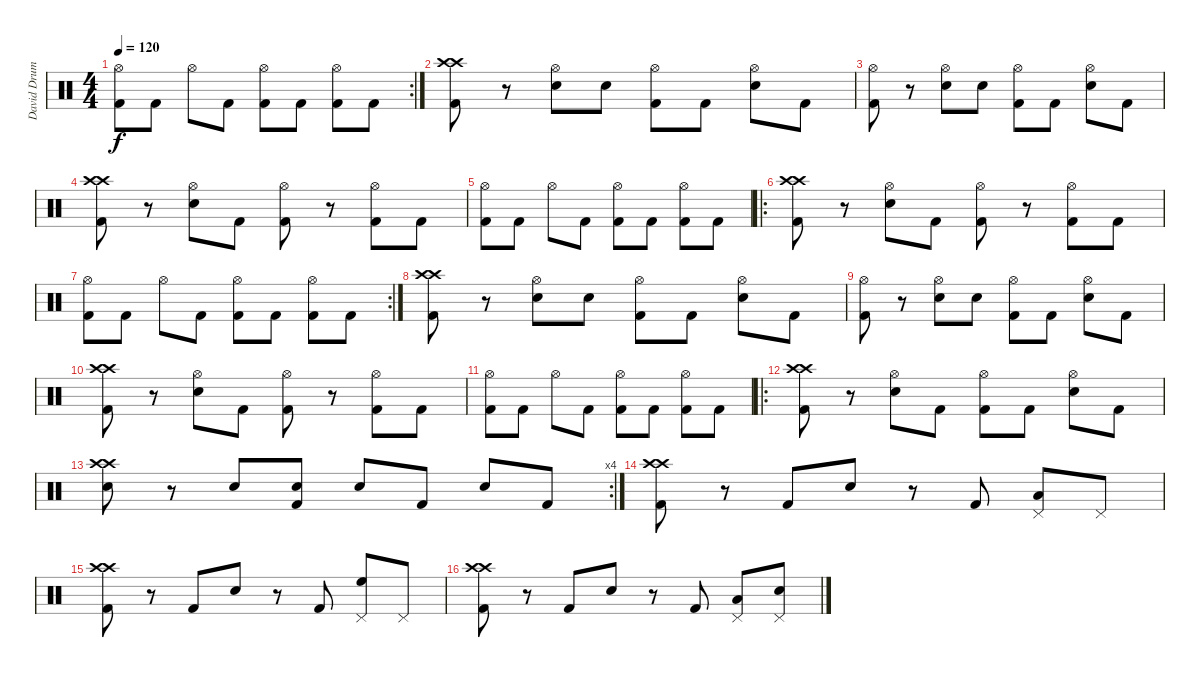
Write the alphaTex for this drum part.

\track ("David Drums" "David Drum") {instrument percussion}
\staff {score}
\articulation defaults
\rc 2
\ts (4 4)
\tempo 120
\clef neutral
\ks c
("Hi-Hat (open)" "Kick (hit) 2").8{dy f} "Kick (hit) 2".8 "Hi-Hat (open)".8 "Kick (hit) 2".8 ("Hi-Hat (open)" "Kick (hit) 2").8 "Kick (hit) 2".8 ("Hi-Hat (open)" "Kick (hit) 2").8 "Kick (hit) 2".8 |
("Crash high (hit)" "Crash high (hit)" "Kick (hit) 2").8 r.8 ("Hi-Hat (open)" "Snare (hit) 2").8 "Snare (hit) 2".8 ("Hi-Hat (open)" "Kick (hit) 2").8 "Kick (hit) 2".8 ("Hi-Hat (open)" "Snare (hit) 2").8 "Kick (hit) 2".8 |
("Hi-Hat (open)" "Kick (hit) 2").8 r.8 ("Hi-Hat (open)" "Snare (hit) 2").8 "Snare (hit) 2".8 ("Hi-Hat (open)" "Kick (hit) 2").8 "Kick (hit) 2".8 ("Hi-Hat (open)" "Snare (hit) 2").8 "Kick (hit) 2".8 |
("Crash high (hit)" "Crash high (hit)" "Kick (hit) 2").8 r.8 ("Hi-Hat (open)" "Snare (hit) 2").8 "Kick (hit) 2".8 ("Hi-Hat (open)" "Kick (hit) 2").8 r.8 ("Hi-Hat (open)" "Kick (hit) 2").8 "Kick (hit) 2".8 |
("Hi-Hat (open)" "Kick (hit) 2").8 "Kick (hit) 2".8 "Hi-Hat (open)".8 "Kick (hit) 2".8 ("Hi-Hat (open)" "Kick (hit) 2").8 "Kick (hit) 2".8 ("Hi-Hat (open)" "Kick (hit) 2").8 "Kick (hit) 2".8 |
\ro
("Crash high (hit)" "Crash high (hit)" "Kick (hit) 2").8 r.8 ("Hi-Hat (open)" "Snare (hit) 2").8 "Kick (hit) 2".8 ("Hi-Hat (open)" "Kick (hit) 2").8 r.8 ("Hi-Hat (open)" "Kick (hit) 2").8 "Kick (hit) 2".8 |
\rc 2
("Hi-Hat (open)" "Kick (hit) 2").8 "Kick (hit) 2".8 "Hi-Hat (open)".8 "Kick (hit) 2".8 ("Hi-Hat (open)" "Kick (hit) 2").8 "Kick (hit) 2".8 ("Hi-Hat (open)" "Kick (hit) 2").8 "Kick (hit) 2".8 |
("Crash high (hit)" "Crash high (hit)" "Kick (hit) 2").8 r.8 ("Hi-Hat (open)" "Snare (hit) 2").8 "Snare (hit) 2".8 ("Hi-Hat (open)" "Kick (hit) 2").8 "Kick (hit) 2".8 ("Hi-Hat (open)" "Snare (hit) 2").8 "Kick (hit) 2".8 |
("Hi-Hat (open)" "Kick (hit) 2").8 r.8 ("Hi-Hat (open)" "Snare (hit) 2").8 "Snare (hit) 2".8 ("Hi-Hat (open)" "Kick (hit) 2").8 "Kick (hit) 2".8 ("Hi-Hat (open)" "Snare (hit) 2").8 "Kick (hit) 2".8 |
("Crash high (hit)" "Crash high (hit)" "Kick (hit) 2").8 r.8 ("Hi-Hat (open)" "Snare (hit) 2").8 "Kick (hit) 2".8 ("Hi-Hat (open)" "Kick (hit) 2").8 r.8 ("Hi-Hat (open)" "Kick (hit) 2").8 "Kick (hit) 2".8 |
("Hi-Hat (open)" "Kick (hit) 2").8 "Kick (hit) 2".8 "Hi-Hat (open)".8 "Kick (hit) 2".8 ("Hi-Hat (open)" "Kick (hit) 2").8 "Kick (hit) 2".8 ("Hi-Hat (open)" "Kick (hit) 2").8 "Kick (hit) 2".8 |
\ro
("Crash high (hit)" "Crash high (hit)" "Kick (hit) 2").8 r.8 ("Hi-Hat (open)" "Snare (hit) 2").8 "Kick (hit) 2".8 ("Hi-Hat (open)" "Kick (hit) 2").8 "Kick (hit) 2".8 ("Hi-Hat (open)" "Snare (hit) 2").8 "Kick (hit) 2".8 |
\rc 4
("Crash high (hit)" "Crash high (hit)" "Snare (hit) 2").8 r.8 "Snare (hit) 2".8 ("Snare (hit) 2" "Kick (hit) 2").8 "Snare (hit) 2".8 "Kick (hit) 2".8 "Snare (hit) 2".8 "Kick (hit) 2".8 |
("Crash high (hit)" "Crash high (hit)" "Kick (hit) 2").8 r.8 "Kick (hit) 2".8 "Snare (hit) 2".8 r.8 "Kick (hit) 2".8 ("Low Tom (hit)" "Pedal Hi-Hat (hit)").8 "Pedal Hi-Hat (hit)".8 |
("Crash high (hit)" "Crash high (hit)" "Kick (hit) 2").8 r.8 "Kick (hit) 2".8 "Snare (hit) 2".8 r.8 "Kick (hit) 2".8 ("High Floor Tom (hit)" "Pedal Hi-Hat (hit)").8 "Pedal Hi-Hat (hit)".8 |
("Crash high (hit)" "Crash high (hit)" "Kick (hit) 2").8 r.8 "Kick (hit) 2".8 "Snare (hit) 2".8 r.8 "Kick (hit) 2".8 ("Low Tom (hit)" "Pedal Hi-Hat (hit)").8 ("Snare (hit) 2" "Pedal Hi-Hat (hit)").8
